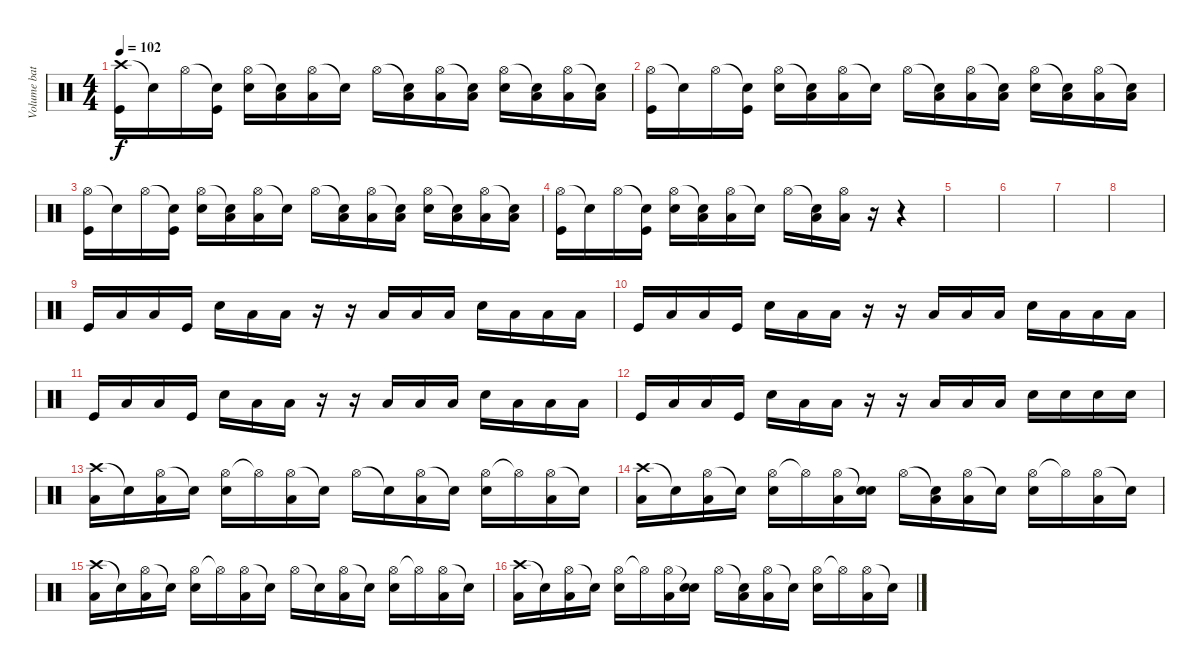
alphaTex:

\track ("Volume batera " "Volume bat") {instrument percussion}
\staff {score}
\articulation defaults
\ts (4 4)
\tempo 102
\clef neutral
\ks c
("Crash high (hit)" "Kick (hit)").16{dy f} "Snare (hit)"{t}.16 "Hi-Hat (open)".16 ("Snare (hit)"{t} "Kick (hit)").16 ("Hi-Hat (open)" "Snare (hit) 2").16 ("Snare (hit)"{t} "Low Tom (hit)").16 ("Hi-Hat (open)" "Low Tom (hit)").16 "Snare (hit)"{t}.16 "Hi-Hat (open)".16 ("Snare (hit)"{t} "Low Tom (hit)").16 ("Hi-Hat (open)" "Low Tom (hit)").16 ("Snare (hit)"{t} "Low Tom (hit)").16 ("Hi-Hat (open)" "Snare (hit) 2").16 ("Snare (hit)"{t} "Low Tom (hit)").16 ("Hi-Hat (open)" "Low Tom (hit)").16 ("Snare (hit)"{t} "Low Tom (hit)").16 |
("Hi-Hat (open)" "Kick (hit)").16 "Snare (hit)"{t}.16 "Hi-Hat (open)".16 ("Snare (hit)"{t} "Kick (hit)").16 ("Hi-Hat (open)" "Snare (hit) 2").16 ("Snare (hit)"{t} "Low Tom (hit)").16 ("Hi-Hat (open)" "Low Tom (hit)").16 "Snare (hit)"{t}.16 "Hi-Hat (open)".16 ("Snare (hit)"{t} "Low Tom (hit)").16 ("Hi-Hat (open)" "Low Tom (hit)").16 ("Snare (hit)"{t} "Low Tom (hit)").16 ("Hi-Hat (open)" "Snare (hit) 2").16 ("Snare (hit)"{t} "Low Tom (hit)").16 ("Hi-Hat (open)" "Low Tom (hit)").16 ("Snare (hit)"{t} "Low Tom (hit)").16 |
("Hi-Hat (open)" "Kick (hit)").16 "Snare (hit)"{t}.16 "Hi-Hat (open)".16 ("Snare (hit)"{t} "Kick (hit)").16 ("Hi-Hat (open)" "Snare (hit) 2").16 ("Snare (hit)"{t} "Low Tom (hit)").16 ("Hi-Hat (open)" "Low Tom (hit)").16 "Snare (hit)"{t}.16 "Hi-Hat (open)".16 ("Snare (hit)"{t} "Low Tom (hit)").16 ("Hi-Hat (open)" "Low Tom (hit)").16 ("Snare (hit)"{t} "Low Tom (hit)").16 ("Hi-Hat (open)" "Snare (hit) 2").16 ("Snare (hit)"{t} "Low Tom (hit)").16 ("Hi-Hat (open)" "Low Tom (hit)").16 ("Snare (hit)"{t} "Low Tom (hit)").16 |
("Hi-Hat (open)" "Kick (hit)").16 "Snare (hit)"{t}.16 "Hi-Hat (open)".16 ("Snare (hit)"{t} "Kick (hit)").16 ("Hi-Hat (open)" "Snare (hit) 2").16 ("Snare (hit)"{t} "Low Tom (hit)").16 ("Hi-Hat (open)" "Low Tom (hit)").16 "Snare (hit)"{t}.16 "Hi-Hat (open)".16 ("Snare (hit)"{t} "Low Tom (hit)").16 ("Hi-Hat (open)" "Low Tom (hit)").16 r.16 r.4 |
|
|
|
|
"Kick (hit)".16 "Low Tom (hit)".16 "Low Tom (hit)".16 "Kick (hit)".16 "Snare (hit) 2".16 "Low Tom (hit)".16 "Low Tom (hit)".16 r.16 r.16 "Low Tom (hit)".16 "Low Tom (hit)".16 "Low Tom (hit)".16 "Snare (hit) 2".16 "Low Tom (hit)".16 "Low Tom (hit)".16 "Low Tom (hit)".16 |
"Kick (hit)".16 "Low Tom (hit)".16 "Low Tom (hit)".16 "Kick (hit)".16 "Snare (hit) 2".16 "Low Tom (hit)".16 "Low Tom (hit)".16 r.16 r.16 "Low Tom (hit)".16 "Low Tom (hit)".16 "Low Tom (hit)".16 "Snare (hit) 2".16 "Low Tom (hit)".16 "Low Tom (hit)".16 "Low Tom (hit)".16 |
"Kick (hit)".16 "Low Tom (hit)".16 "Low Tom (hit)".16 "Kick (hit)".16 "Snare (hit) 2".16 "Low Tom (hit)".16 "Low Tom (hit)".16 r.16 r.16 "Low Tom (hit)".16 "Low Tom (hit)".16 "Low Tom (hit)".16 "Snare (hit) 2".16 "Low Tom (hit)".16 "Low Tom (hit)".16 "Low Tom (hit)".16 |
"Kick (hit)".16 "Low Tom (hit)".16 "Low Tom (hit)".16 "Kick (hit)".16 "Snare (hit) 2".16 "Low Tom (hit)".16 "Low Tom (hit)".16 r.16 r.16 "Low Tom (hit)".16 "Low Tom (hit)".16 "Low Tom (hit)".16 "Snare (hit) 2".16 "Snare (hit) 2".16 "Snare (hit) 2".16 "Snare (hit) 2".16 |
("Crash high (hit)" "Low Tom (hit)").16 "Snare (hit)"{t}.16 ("Hi-Hat (open)" "Low Tom (hit)").16 "Snare (hit)"{t}.16 ("Hi-Hat (open)" "Snare (hit) 2").16 "Hi-Hat (open)"{t}.16 ("Hi-Hat (open)" "Low Tom (hit)").16 "Snare (hit)"{t}.16 "Hi-Hat (open)".16 "Snare (hit)"{t}.16 ("Hi-Hat (open)" "Low Tom (hit)").16 "Snare (hit)"{t}.16 ("Hi-Hat (open)" "Snare (hit) 2").16 "Hi-Hat (open)"{t}.16 ("Hi-Hat (open)" "Low Tom (hit)").16 "Snare (hit)"{t}.16 |
("Crash high (hit)" "Low Tom (hit)").16 "Snare (hit)"{t}.16 ("Hi-Hat (open)" "Low Tom (hit)").16 "Snare (hit)"{t}.16 ("Hi-Hat (open)" "Snare (hit) 2").16 "Hi-Hat (open)"{t}.16 ("Hi-Hat (open)" "Low Tom (hit)").16 ("Snare (hit)"{t} "Snare (hit) 2").16 "Hi-Hat (open)".16 ("Snare (hit)"{t} "Low Tom (hit)").16 ("Hi-Hat (open)" "Low Tom (hit)").16 "Snare (hit)"{t}.16 ("Hi-Hat (open)" "Snare (hit) 2").16 "Hi-Hat (open)"{t}.16 ("Hi-Hat (open)" "Low Tom (hit)").16 "Snare (hit)"{t}.16 |
("Crash high (hit)" "Low Tom (hit)").16 "Snare (hit)"{t}.16 ("Hi-Hat (open)" "Low Tom (hit)").16 "Snare (hit)"{t}.16 ("Hi-Hat (open)" "Snare (hit) 2").16 "Hi-Hat (open)"{t}.16 ("Hi-Hat (open)" "Low Tom (hit)").16 "Snare (hit)"{t}.16 "Hi-Hat (open)".16 "Snare (hit)"{t}.16 ("Hi-Hat (open)" "Low Tom (hit)").16 "Snare (hit)"{t}.16 ("Hi-Hat (open)" "Snare (hit) 2").16 "Hi-Hat (open)"{t}.16 ("Hi-Hat (open)" "Low Tom (hit)").16 "Snare (hit)"{t}.16 |
("Crash high (hit)" "Low Tom (hit)").16 "Snare (hit)"{t}.16 ("Hi-Hat (open)" "Low Tom (hit)").16 "Snare (hit)"{t}.16 ("Hi-Hat (open)" "Snare (hit) 2").16 "Hi-Hat (open)"{t}.16 ("Hi-Hat (open)" "Low Tom (hit)").16 ("Snare (hit)"{t} "Snare (hit) 2").16 "Hi-Hat (open)".16 ("Snare (hit)"{t} "Low Tom (hit)").16 ("Hi-Hat (open)" "Low Tom (hit)").16 "Snare (hit)"{t}.16 ("Hi-Hat (open)" "Snare (hit) 2").16 "Hi-Hat (open)"{t}.16 ("Hi-Hat (open)" "Low Tom (hit)").16 "Snare (hit)"{t}.16
